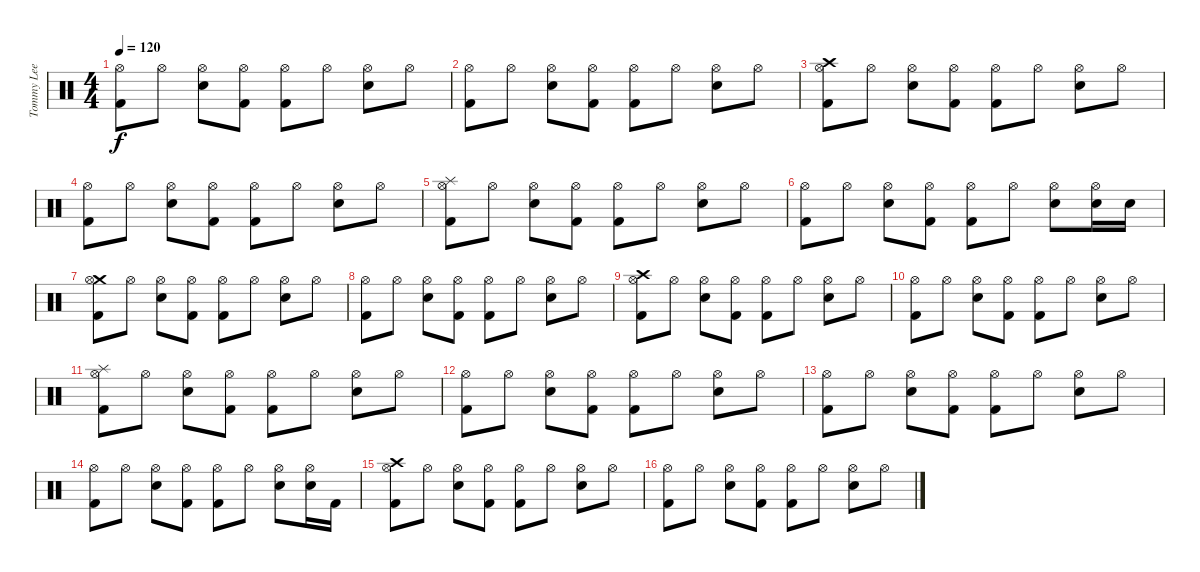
\track ("Tommy Lee" "Tommy Lee") {instrument percussion}
\staff {score}
\articulation defaults
\ts (4 4)
\tempo 120
\clef neutral
\ks c
("Hi-Hat (open)" "Kick (hit) 2").8{dy f} "Hi-Hat (open)".8 ("Hi-Hat (open)" "Electric Snare (hit)").8 ("Hi-Hat (open)" "Kick (hit) 2").8 ("Hi-Hat (open)" "Kick (hit) 2").8 "Hi-Hat (open)".8 ("Hi-Hat (open)" "Electric Snare (hit)").8 "Hi-Hat (open)".8 |
("Hi-Hat (open)" "Kick (hit) 2").8 "Hi-Hat (open)".8 ("Hi-Hat (open)" "Electric Snare (hit)").8 ("Hi-Hat (open)" "Kick (hit) 2").8 ("Hi-Hat (open)" "Kick (hit) 2").8 "Hi-Hat (open)".8 ("Hi-Hat (open)" "Electric Snare (hit)").8 "Hi-Hat (open)".8 |
("Hi-Hat (open)" "Kick (hit) 2" "Crash high (hit)").8 "Hi-Hat (open)".8 ("Hi-Hat (open)" "Electric Snare (hit)").8 ("Hi-Hat (open)" "Kick (hit) 2").8 ("Hi-Hat (open)" "Kick (hit) 2").8 "Hi-Hat (open)".8 ("Hi-Hat (open)" "Electric Snare (hit)").8 "Hi-Hat (open)".8 |
("Hi-Hat (open)" "Kick (hit) 2").8 "Hi-Hat (open)".8 ("Hi-Hat (open)" "Electric Snare (hit)").8 ("Hi-Hat (open)" "Kick (hit) 2").8 ("Hi-Hat (open)" "Kick (hit) 2").8 "Hi-Hat (open)".8 ("Hi-Hat (open)" "Electric Snare (hit)").8 "Hi-Hat (open)".8 |
("Splash (hit)" "Hi-Hat (open)" "Kick (hit) 2").8 "Hi-Hat (open)".8 ("Hi-Hat (open)" "Electric Snare (hit)").8 ("Hi-Hat (open)" "Kick (hit) 2").8 ("Hi-Hat (open)" "Kick (hit) 2").8 "Hi-Hat (open)".8 ("Hi-Hat (open)" "Electric Snare (hit)").8 "Hi-Hat (open)".8 |
("Hi-Hat (open)" "Kick (hit) 2").8 "Hi-Hat (open)".8 ("Hi-Hat (open)" "Electric Snare (hit)").8 ("Hi-Hat (open)" "Kick (hit) 2").8 ("Hi-Hat (open)" "Kick (hit) 2").8 "Hi-Hat (open)".8 ("Hi-Hat (open)" "Electric Snare (hit)").8 ("Hi-Hat (open)" "Snare (hit) 2").16 "Snare (hit) 2".16 |
("Crash medium (hit)" "Hi-Hat (open)" "Kick (hit) 2").8 "Hi-Hat (open)".8 ("Hi-Hat (open)" "Electric Snare (hit)").8 ("Hi-Hat (open)" "Kick (hit) 2").8 ("Hi-Hat (open)" "Kick (hit) 2").8 "Hi-Hat (open)".8 ("Hi-Hat (open)" "Electric Snare (hit)").8 "Hi-Hat (open)".8 |
("Hi-Hat (open)" "Kick (hit) 2").8 "Hi-Hat (open)".8 ("Hi-Hat (open)" "Electric Snare (hit)").8 ("Hi-Hat (open)" "Kick (hit) 2").8 ("Hi-Hat (open)" "Kick (hit) 2").8 "Hi-Hat (open)".8 ("Hi-Hat (open)" "Electric Snare (hit)").8 "Hi-Hat (open)".8 |
("Crash high (hit)" "Hi-Hat (open)" "Kick (hit) 2").8 "Hi-Hat (open)".8 ("Hi-Hat (open)" "Electric Snare (hit)").8 ("Hi-Hat (open)" "Kick (hit) 2").8 ("Hi-Hat (open)" "Kick (hit) 2").8 "Hi-Hat (open)".8 ("Hi-Hat (open)" "Electric Snare (hit)").8 "Hi-Hat (open)".8 |
("Hi-Hat (open)" "Kick (hit) 2").8 "Hi-Hat (open)".8 ("Hi-Hat (open)" "Electric Snare (hit)").8 ("Hi-Hat (open)" "Kick (hit) 2").8 ("Hi-Hat (open)" "Kick (hit) 2").8 "Hi-Hat (open)".8 ("Hi-Hat (open)" "Electric Snare (hit)").8 "Hi-Hat (open)".8 |
("Splash (hit)" "Hi-Hat (open)" "Kick (hit) 2").8 "Hi-Hat (open)".8 ("Hi-Hat (open)" "Electric Snare (hit)").8 ("Hi-Hat (open)" "Kick (hit) 2").8 ("Hi-Hat (open)" "Kick (hit) 2").8 "Hi-Hat (open)".8 ("Hi-Hat (open)" "Electric Snare (hit)").8 "Hi-Hat (open)".8 |
("Hi-Hat (open)" "Kick (hit) 2").8 "Hi-Hat (open)".8 ("Hi-Hat (open)" "Electric Snare (hit)").8 ("Hi-Hat (open)" "Kick (hit) 2").8 ("Hi-Hat (open)" "Kick (hit) 2").8 "Hi-Hat (open)".8 ("Hi-Hat (open)" "Electric Snare (hit)").8 "Hi-Hat (open)".8 |
("Hi-Hat (open)" "Kick (hit) 2").8 "Hi-Hat (open)".8 ("Hi-Hat (open)" "Electric Snare (hit)").8 ("Hi-Hat (open)" "Kick (hit) 2").8 ("Hi-Hat (open)" "Kick (hit) 2").8 "Hi-Hat (open)".8 ("Hi-Hat (open)" "Electric Snare (hit)").8 "Hi-Hat (open)".8 |
("Hi-Hat (open)" "Kick (hit) 2").8 "Hi-Hat (open)".8 ("Hi-Hat (open)" "Electric Snare (hit)").8 ("Hi-Hat (open)" "Kick (hit) 2").8 ("Hi-Hat (open)" "Kick (hit) 2").8 "Hi-Hat (open)".8 ("Hi-Hat (open)" "Electric Snare (hit)").8 ("Hi-Hat (open)" "Snare (hit) 2").16 "Kick (hit) 2".16 |
("Crash high (hit)" "Hi-Hat (open)" "Kick (hit) 2").8 "Hi-Hat (open)".8 ("Hi-Hat (open)" "Electric Snare (hit)").8 ("Hi-Hat (open)" "Kick (hit) 2").8 ("Hi-Hat (open)" "Kick (hit) 2").8 "Hi-Hat (open)".8 ("Hi-Hat (open)" "Electric Snare (hit)").8 "Hi-Hat (open)".8 |
("Hi-Hat (open)" "Kick (hit) 2").8 "Hi-Hat (open)".8 ("Hi-Hat (open)" "Electric Snare (hit)").8 ("Hi-Hat (open)" "Kick (hit) 2").8 ("Hi-Hat (open)" "Kick (hit) 2").8 "Hi-Hat (open)".8 ("Hi-Hat (open)" "Electric Snare (hit)").8 "Hi-Hat (open)".8
